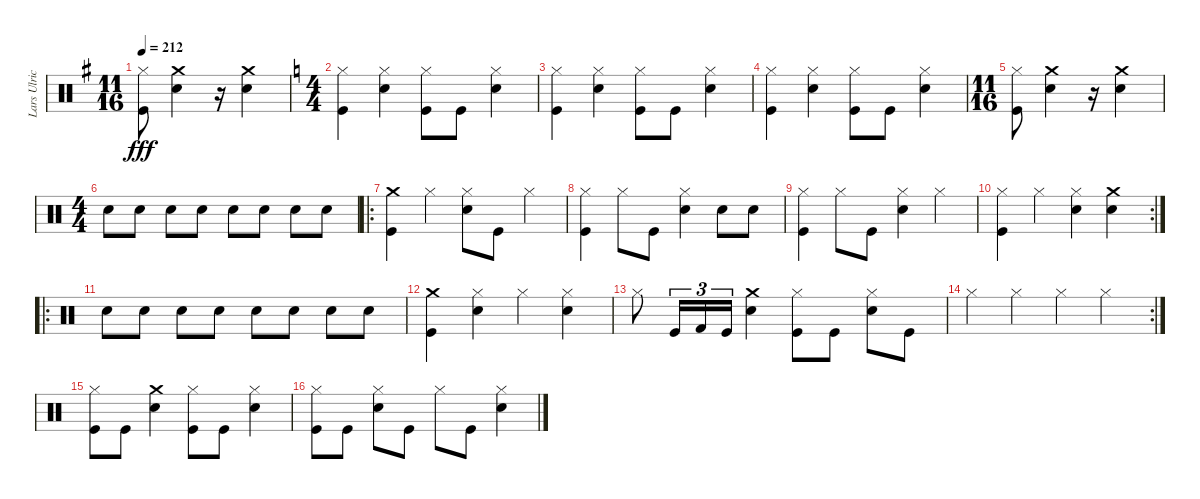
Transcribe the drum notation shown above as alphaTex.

\track ("Lars Ulrich" "Lars Ulric") {instrument percussion}
\staff {score}
\articulation defaults
\ts (11 16)
\tempo 212
\clef neutral
\ks g
("Hi-Hat (closed)" "Kick (hit)").8{dy fff} ("Snare (hit) 2" "Crash medium (hit)").4 r.16 ("Snare (hit) 2" "Crash medium (hit)").4 |
\ts (4 4)
\ks c
("Kick (hit)" "Hi-Hat (closed)").4 ("Snare (hit) 2" "Hi-Hat (closed)").4 ("Kick (hit)" "Hi-Hat (closed)").8 "Kick (hit)".8 ("Snare (hit) 2" "Hi-Hat (closed)").4 |
("Hi-Hat (closed)" "Kick (hit)").4 ("Snare (hit) 2" "Hi-Hat (closed)").4 ("Hi-Hat (closed)" "Kick (hit)").8 "Kick (hit)".8 ("Snare (hit) 2" "Hi-Hat (closed)").4 |
("Hi-Hat (closed)" "Kick (hit)").4 ("Snare (hit) 2" "Hi-Hat (closed)").4 ("Kick (hit)" "Hi-Hat (closed)").8 "Kick (hit)".8 ("Hi-Hat (closed)" "Snare (hit) 2").4 |
\ts (11 16)
("Hi-Hat (closed)" "Kick (hit)").8 ("Snare (hit) 2" "Crash medium (hit)").4 r.16 ("Snare (hit) 2" "Crash medium (hit)").4 |
\ts (4 4)
"Snare (hit) 2".8 "Snare (hit) 2".8 "Snare (hit) 2".8 "Snare (hit) 2".8 "Snare (hit) 2".8 "Snare (hit) 2".8 "Snare (hit) 2".8 "Snare (hit) 2".8 |
\ro
("Kick (hit)" "Crash medium (hit)").4 "Hi-Hat (closed)".4 ("Snare (hit) 2" "Hi-Hat (closed)").8 "Kick (hit)".8 "Hi-Hat (closed)".4 |
("Kick (hit)" "Hi-Hat (closed)").4 "Hi-Hat (closed)".8 "Kick (hit)".8 ("Hi-Hat (closed)" "Snare (hit) 2").4 "Snare (hit) 2".8 "Snare (hit) 2".8 |
("Hi-Hat (closed)" "Kick (hit)").4 "Hi-Hat (closed)".8 "Kick (hit)".8 ("Snare (hit) 2" "Hi-Hat (closed)").4 "Hi-Hat (closed)".4 |
\rc 2
("Kick (hit)" "Hi-Hat (closed)").4 "Hi-Hat (closed)".4 ("Hi-Hat (closed)" "Snare (hit) 2").4 ("Snare (hit) 2" "Crash medium (hit)").4 |
\ro "Snare (hit) 2".8 "Snare (hit) 2".8 "Snare (hit) 2".8 "Snare (hit) 2".8 "Snare (hit) 2".8 "Snare (hit) 2".8 "Snare (hit) 2".8 "Snare (hit) 2".8
|
("Kick (hit)" "Crash medium (hit)").4 ("Hi-Hat (closed)" "Snare (hit) 2").4 "Hi-Hat (closed)".4 ("Snare (hit) 2" "Hi-Hat (closed)").4 |
"Hi-Hat (closed)".8 "Kick (hit)".16{tu (3 2)} "Kick (hit) 2".16{tu (3 2)} "Kick (hit)".16{tu (3 2)} ("Snare (hit) 2" "Crash medium (hit)").4 ("Kick (hit)" "Hi-Hat (closed)").8 "Kick (hit)".8 ("Snare (hit) 2" "Hi-Hat (closed)").8 "Kick (hit)".8 |
\rc 2 "Hi-Hat (closed)".4 "Hi-Hat (closed)".4 "Hi-Hat (closed)".4 "Hi-Hat (closed)".4
|
("Kick (hit)" "Hi-Hat (closed)").8 "Kick (hit)".8 ("Snare (hit) 2" "Crash medium (hit)").4 ("Kick (hit)" "Hi-Hat (closed)").8 "Kick (hit)".8 ("Hi-Hat (closed)" "Snare (hit) 2").4 |
("Kick (hit)" "Hi-Hat (closed)").8 "Kick (hit)".8 ("Snare (hit) 2" "Hi-Hat (closed)").8 "Kick (hit)".8 "Hi-Hat (closed)".8 "Kick (hit)".8 ("Snare (hit) 2" "Hi-Hat (closed)").4
